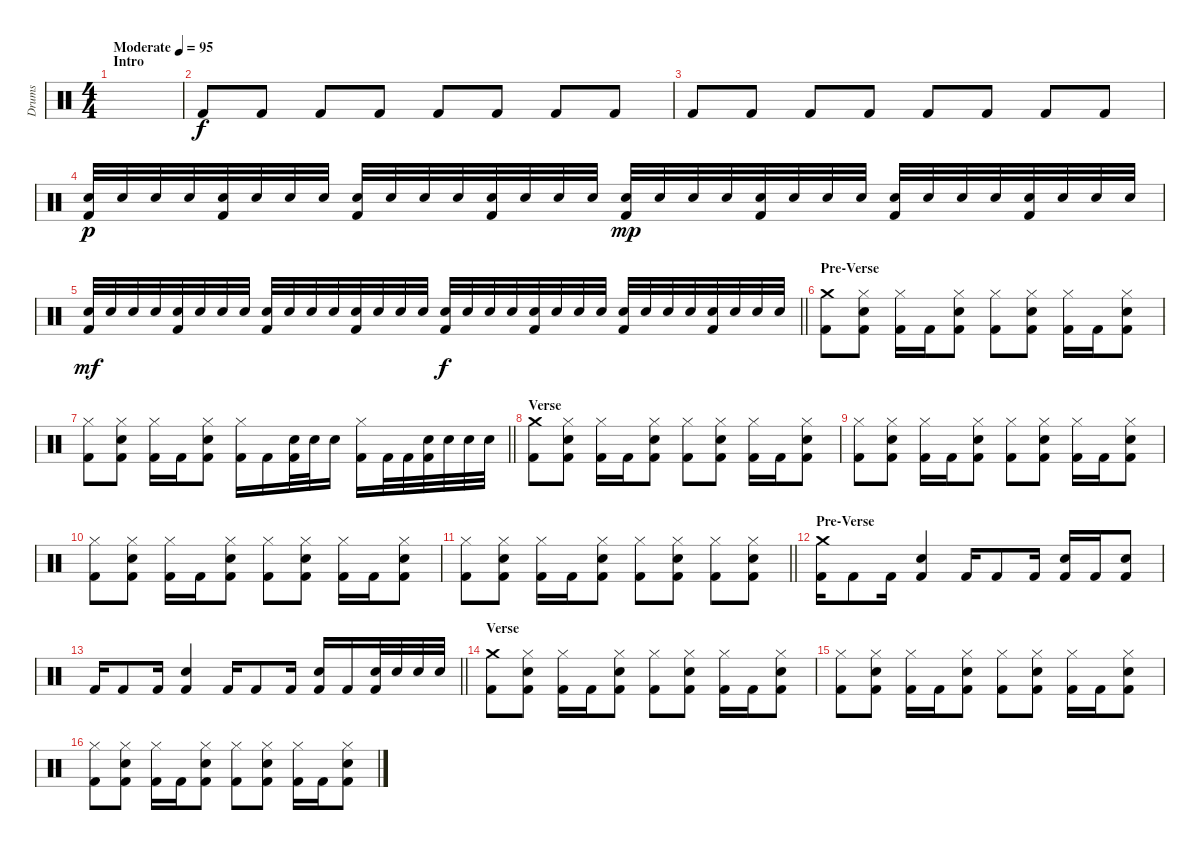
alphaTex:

\track ("Drums" "Drums") {instrument percussion}
\staff {score}
\articulation defaults
\ts (4 4)
\section ("" "Intro")
\tempo (95 "Moderate")
\clef neutral
\ks c
|
"Kick (hit) 2".8 "Kick (hit) 2".8 "Kick (hit) 2".8 "Kick (hit) 2".8 "Kick (hit) 2".8 "Kick (hit) 2".8 "Kick (hit) 2".8 "Kick (hit) 2".8 |
"Kick (hit) 2".8 "Kick (hit) 2".8 "Kick (hit) 2".8 "Kick (hit) 2".8 "Kick (hit) 2".8 "Kick (hit) 2".8 "Kick (hit) 2".8 "Kick (hit) 2".8 |
("Snare (hit) 2" "Kick (hit) 2").32{dy p} "Snare (hit) 2".32 "Snare (hit) 2".32 "Snare (hit) 2".32 ("Snare (hit) 2" "Kick (hit) 2").32 "Snare (hit) 2".32 "Snare (hit) 2".32 "Snare (hit) 2".32 ("Snare (hit) 2" "Kick (hit) 2").32 "Snare (hit) 2".32 "Snare (hit) 2".32 "Snare (hit) 2".32 ("Snare (hit) 2" "Kick (hit) 2").32 "Snare (hit) 2".32 "Snare (hit) 2".32 "Snare (hit) 2".32 ("Snare (hit) 2" "Kick (hit) 2").32{dy mp} "Snare (hit) 2".32 "Snare (hit) 2".32 "Snare (hit) 2".32 ("Snare (hit) 2" "Kick (hit) 2").32 "Snare (hit) 2".32 "Snare (hit) 2".32 "Snare (hit) 2".32 ("Snare (hit) 2" "Kick (hit) 2").32 "Snare (hit) 2".32 "Snare (hit) 2".32 "Snare (hit) 2".32 ("Snare (hit) 2" "Kick (hit) 2").32 "Snare (hit) 2".32 "Snare (hit) 2".32 "Snare (hit) 2".32 |
\barLineRight lightlight
("Snare (hit) 2" "Kick (hit) 2").32{dy mf} "Snare (hit) 2".32 "Snare (hit) 2".32 "Snare (hit) 2".32 ("Snare (hit) 2" "Kick (hit) 2").32 "Snare (hit) 2".32 "Snare (hit) 2".32 "Snare (hit) 2".32 ("Snare (hit) 2" "Kick (hit) 2").32 "Snare (hit) 2".32 "Snare (hit) 2".32 "Snare (hit) 2".32 ("Snare (hit) 2" "Kick (hit) 2").32 "Snare (hit) 2".32 "Snare (hit) 2".32 "Snare (hit) 2".32 ("Snare (hit) 2" "Kick (hit) 2").32{dy f} "Snare (hit) 2".32 "Snare (hit) 2".32 "Snare (hit) 2".32 ("Snare (hit) 2" "Kick (hit) 2").32 "Snare (hit) 2".32 "Snare (hit) 2".32 "Snare (hit) 2".32 ("Snare (hit) 2" "Kick (hit) 2").32 "Snare (hit) 2".32 "Snare (hit) 2".32 "Snare (hit) 2".32 ("Snare (hit) 2" "Kick (hit) 2").32 "Snare (hit) 2".32 "Snare (hit) 2".32 "Snare (hit) 2".32 |
\section ("" "Pre-Verse")
("Crash medium (hit)" "Kick (hit) 2").8 ("Hi-Hat (closed)" "Snare (hit) 2" "Kick (hit) 2").8 ("Hi-Hat (closed)" "Kick (hit) 2").16 "Kick (hit) 2".16 ("Hi-Hat (closed)" "Snare (hit) 2" "Kick (hit) 2").8 ("Hi-Hat (closed)" "Kick (hit) 2").8 ("Hi-Hat (closed)" "Snare (hit) 2" "Kick (hit) 2").8 ("Hi-Hat (closed)" "Kick (hit) 2").16 "Kick (hit) 2".16 ("Hi-Hat (closed)" "Snare (hit) 2" "Kick (hit) 2").8 |
\barLineRight lightlight
("Hi-Hat (closed)" "Kick (hit) 2").8 ("Hi-Hat (closed)" "Snare (hit) 2" "Kick (hit) 2").8 ("Hi-Hat (closed)" "Kick (hit) 2").16 "Kick (hit) 2".16 ("Hi-Hat (closed)" "Snare (hit) 2" "Kick (hit) 2").8 ("Hi-Hat (closed)" "Kick (hit) 2").16 "Kick (hit) 2".16 ("Snare (hit) 2" "Kick (hit) 2").32 "Snare (hit) 2".32 "Snare (hit) 2".16 ("Hi-Hat (closed)" "Kick (hit) 2").16 "Kick (hit) 2".32 "Kick (hit) 2".32 ("Snare (hit) 2" "Kick (hit) 2").32 "Snare (hit) 2".32 "Snare (hit) 2".32 "Snare (hit) 2".32 |
\section ("" "Verse")
("Crash medium (hit)" "Kick (hit) 2").8 ("Hi-Hat (closed)" "Snare (hit) 2" "Kick (hit) 2").8 ("Hi-Hat (closed)" "Kick (hit) 2").16 "Kick (hit) 2".16 ("Hi-Hat (closed)" "Snare (hit) 2" "Kick (hit) 2").8 ("Hi-Hat (closed)" "Kick (hit) 2").8 ("Hi-Hat (closed)" "Snare (hit) 2" "Kick (hit) 2").8 ("Hi-Hat (closed)" "Kick (hit) 2").16 "Kick (hit) 2".16 ("Hi-Hat (closed)" "Snare (hit) 2" "Kick (hit) 2").8 |
("Hi-Hat (closed)" "Kick (hit) 2").8 ("Hi-Hat (closed)" "Snare (hit) 2" "Kick (hit) 2").8 ("Hi-Hat (closed)" "Kick (hit) 2").16 "Kick (hit) 2".16 ("Hi-Hat (closed)" "Snare (hit) 2" "Kick (hit) 2").8 ("Hi-Hat (closed)" "Kick (hit) 2").8 ("Hi-Hat (closed)" "Snare (hit) 2" "Kick (hit) 2").8 ("Hi-Hat (closed)" "Kick (hit) 2").16 "Kick (hit) 2".16 ("Hi-Hat (closed)" "Snare (hit) 2" "Kick (hit) 2").8 |
("Hi-Hat (closed)" "Kick (hit) 2").8 ("Hi-Hat (closed)" "Snare (hit) 2" "Kick (hit) 2").8 ("Hi-Hat (closed)" "Kick (hit) 2").16 "Kick (hit) 2".16 ("Hi-Hat (closed)" "Snare (hit) 2" "Kick (hit) 2").8 ("Hi-Hat (closed)" "Kick (hit) 2").8 ("Hi-Hat (closed)" "Snare (hit) 2" "Kick (hit) 2").8 ("Hi-Hat (closed)" "Kick (hit) 2").16 "Kick (hit) 2".16 ("Hi-Hat (closed)" "Snare (hit) 2" "Kick (hit) 2").8 |
\barLineRight lightlight
("Hi-Hat (closed)" "Kick (hit) 2").8 ("Hi-Hat (closed)" "Snare (hit) 2" "Kick (hit) 2").8 ("Hi-Hat (closed)" "Kick (hit) 2").16 "Kick (hit) 2".16 ("Hi-Hat (closed)" "Snare (hit) 2" "Kick (hit) 2").8 ("Hi-Hat (closed)" "Kick (hit) 2").8 ("Hi-Hat (closed)" "Snare (hit) 2" "Kick (hit) 2").8 ("Hi-Hat (closed)" "Kick (hit) 2").8 ("Hi-Hat (closed)" "Snare (hit) 2" "Kick (hit) 2").8 |
\section ("" "Pre-Verse")
("Crash medium (hit)" "Kick (hit) 2").16 "Kick (hit) 2".8 "Kick (hit) 2".16 ("Snare (hit) 2" "Kick (hit) 2").4 "Kick (hit) 2".16 "Kick (hit) 2".8 "Kick (hit) 2".16 ("Snare (hit) 2" "Kick (hit) 2").16 "Kick (hit) 2".16 ("Snare (hit) 2" "Kick (hit) 2").8 |
\barLineRight lightlight "Kick (hit) 2".16 "Kick (hit) 2".8 "Kick (hit) 2".16
("Snare (hit) 2" "Kick (hit) 2").4 "Kick (hit) 2".16 "Kick (hit) 2".8 "Kick (hit) 2".16 ("Snare (hit) 2" "Kick (hit) 2").16 "Kick (hit) 2".16 ("Snare (hit) 2" "Kick (hit) 2").32 "Snare (hit) 2".32 "Snare (hit) 2".32 "Snare (hit) 2".32 |
\section ("" "Verse")
("Crash medium (hit)" "Kick (hit) 2").8 ("Hi-Hat (closed)" "Snare (hit) 2" "Kick (hit) 2").8 ("Hi-Hat (closed)" "Kick (hit) 2").16 "Kick (hit) 2".16 ("Hi-Hat (closed)" "Snare (hit) 2" "Kick (hit) 2").8 ("Hi-Hat (closed)" "Kick (hit) 2").8 ("Hi-Hat (closed)" "Snare (hit) 2" "Kick (hit) 2").8 ("Hi-Hat (closed)" "Kick (hit) 2").16 "Kick (hit) 2".16 ("Hi-Hat (closed)" "Snare (hit) 2" "Kick (hit) 2").8 |
("Hi-Hat (closed)" "Kick (hit) 2").8 ("Hi-Hat (closed)" "Snare (hit) 2" "Kick (hit) 2").8 ("Hi-Hat (closed)" "Kick (hit) 2").16 "Kick (hit) 2".16 ("Hi-Hat (closed)" "Snare (hit) 2" "Kick (hit) 2").8 ("Hi-Hat (closed)" "Kick (hit) 2").8 ("Hi-Hat (closed)" "Snare (hit) 2" "Kick (hit) 2").8 ("Hi-Hat (closed)" "Kick (hit) 2").16 "Kick (hit) 2".16 ("Hi-Hat (closed)" "Snare (hit) 2" "Kick (hit) 2").8 |
("Hi-Hat (closed)" "Kick (hit) 2").8 ("Hi-Hat (closed)" "Snare (hit) 2" "Kick (hit) 2").8 ("Hi-Hat (closed)" "Kick (hit) 2").16 "Kick (hit) 2".16 ("Hi-Hat (closed)" "Snare (hit) 2" "Kick (hit) 2").8 ("Hi-Hat (closed)" "Kick (hit) 2").8 ("Hi-Hat (closed)" "Snare (hit) 2" "Kick (hit) 2").8 ("Hi-Hat (closed)" "Kick (hit) 2").16 "Kick (hit) 2".16 ("Hi-Hat (closed)" "Snare (hit) 2" "Kick (hit) 2").8
